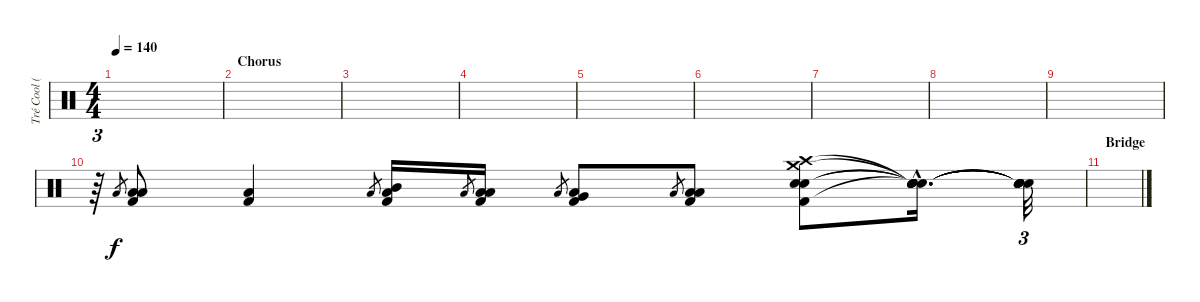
\track ("Tré Cool (Bongos)" "Tré Cool (") {instrument percussion}
\staff {score}
\articulation defaults
\ts (4 4)
\tempo 140
\clef neutral
\ks c
|
\section ("" "Chorus")
|
|
|
|
|
|
|
|
r.64{tu (3 2)} "Low Tom (hit)".8{gr} ("Low Tom (hit)" "Low Tom (hit)" "Kick (hit) 2").8 ("Low Floor Tom (hit)" "Kick (hit) 2").4 "Low Tom (hit)".8{gr} ("Mid Tom (hit)" "Low Tom (hit)" "Kick (hit) 2").16 "Low Tom (hit)".8{gr} ("Low Tom (hit)" "Low Tom (hit)" "Kick (hit) 2").16 "Low Tom (hit)".8{gr} ("Very Low Tom (hit)" "Low Tom (hit)" "Kick (hit) 2").8 "Low Tom (hit)".8{gr} ("Low Floor Tom (hit)" "Low Tom (hit)" "Kick (hit) 2").8 ("Crash high (hit)" "Electric Snare (hit)" "Electric Snare (hit)" "Crash medium (hit)" "Kick (hit) 2").8 ("Snare (hit)"{hac t} "Snare (hit)"{hac t} "Snare (hit)"{hac t} "Snare (hit)"{hac t} "Snare (hit)"{hac t}).16{d} ("Snare (hit)"{t} "Snare (hit)"{t} "Snare (hit)"{t} "Snare (hit)"{t} "Snare (hit)"{t}).32{tu (3 2)} |
\section ("" "Bridge")
